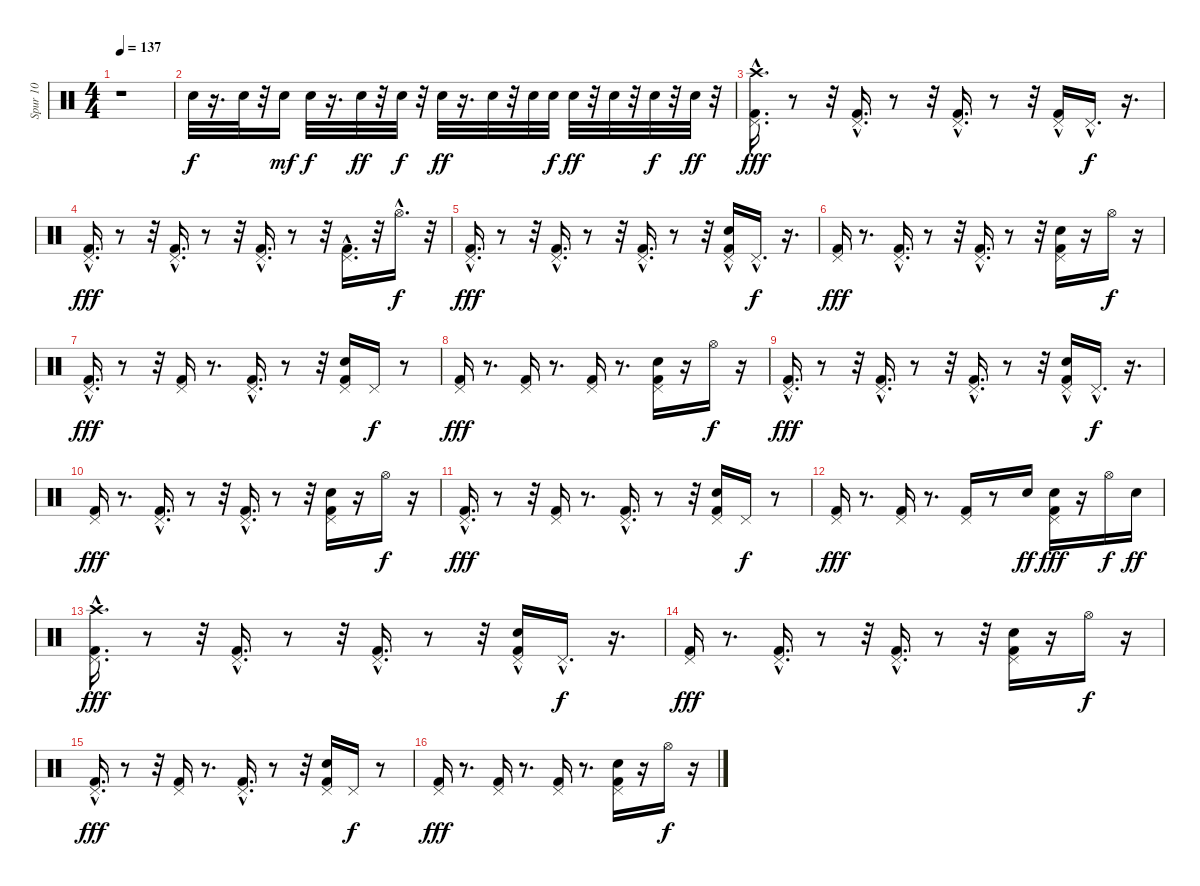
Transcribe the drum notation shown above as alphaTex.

\track ("Spur 10" "Spur 10") {instrument percussion}
\staff {score}
\articulation defaults
\ts (4 4)
\tempo 137
\clef neutral
\ks c
r.1{dy f} |
"Snare (hit) 2".32 r.16{d} "Snare (hit) 2".32 r.32 "Snare (hit) 2".16{dy mf} "Snare (hit) 2".32{dy f} r.16{d} "Snare (hit) 2".32{dy ff} r.32 "Snare (hit) 2".32{dy f} r.32 "Snare (hit) 2".32{dy ff} r.16{d} "Snare (hit) 2".32 r.32 "Snare (hit) 2".32 "Snare (hit) 2".32{dy f} "Snare (hit) 2".32{dy ff} r.32 "Snare (hit) 2".32 r.32 "Snare (hit) 2".32{dy f} r.32 "Snare (hit) 2".32{dy ff} r.32 |
("Crash high (hit)" "Pedal Hi-Hat (hit)" "Kick (hit) 2"{hac}).16{d dy fff} r.8 r.32 ("Pedal Hi-Hat (hit)" "Kick (hit) 2"{hac}).16{d} r.8 r.32 ("Pedal Hi-Hat (hit)"{hac} "Kick (hit) 2"{hac}).16{d} r.8 r.32 ("Pedal Hi-Hat (hit)" "Kick (hit) 2"{hac}).16 "Pedal Hi-Hat (hit)"{hac}.16{d dy f} r.16{d} |
("Pedal Hi-Hat (hit)" "Kick (hit) 2"{hac}).16{d dy fff} r.8 r.32 ("Pedal Hi-Hat (hit)" "Kick (hit) 2"{hac}).16{d} r.8 r.32 ("Pedal Hi-Hat (hit)"{hac} "Kick (hit) 2"{hac}).16{d} r.8 r.32 ("Pedal Hi-Hat (hit)"{hac} "Kick (hit) 2"{hac}).16{d} r.32 "Hi-Hat (open)"{hac}.16{d dy f} r.32 |
("Pedal Hi-Hat (hit)" "Kick (hit) 2"{hac}).16{d dy fff} r.8 r.32 ("Pedal Hi-Hat (hit)" "Kick (hit) 2"{hac}).16{d} r.8 r.32 ("Pedal Hi-Hat (hit)"{hac} "Kick (hit) 2"{hac}).16{d} r.8 r.32 ("Snare (hit) 2" "Pedal Hi-Hat (hit)" "Kick (hit) 2"{hac}).16 "Pedal Hi-Hat (hit)"{hac}.16{d dy f} r.16{d} |
("Pedal Hi-Hat (hit)" "Kick (hit) 2").16{dy fff} r.8{d} ("Pedal Hi-Hat (hit)" "Kick (hit) 2"{hac}).16{d} r.8 r.32 ("Pedal Hi-Hat (hit)" "Kick (hit) 2"{hac}).16{d} r.8 r.32 ("Snare (hit) 2" "Pedal Hi-Hat (hit)" "Kick (hit) 2").16 r.16 "Hi-Hat (open)".16{dy f} r.16 |
("Pedal Hi-Hat (hit)" "Kick (hit) 2"{hac}).16{d dy fff} r.8 r.32 ("Pedal Hi-Hat (hit)" "Kick (hit) 2").16 r.8{d} ("Pedal Hi-Hat (hit)" "Kick (hit) 2"{hac}).16{d} r.8 r.32 ("Snare (hit) 2" "Pedal Hi-Hat (hit)" "Kick (hit) 2").16 "Pedal Hi-Hat (hit)".16{dy f} r.8 |
("Pedal Hi-Hat (hit)" "Kick (hit) 2").16{dy fff} r.8{d} ("Pedal Hi-Hat (hit)" "Kick (hit) 2").16 r.8{d} ("Pedal Hi-Hat (hit)" "Kick (hit) 2").16 r.8{d} ("Snare (hit) 2" "Pedal Hi-Hat (hit)" "Kick (hit) 2").16 r.16 "Hi-Hat (open)".16{dy f} r.16 |
("Pedal Hi-Hat (hit)" "Kick (hit) 2"{hac}).16{d dy fff} r.8 r.32 ("Pedal Hi-Hat (hit)" "Kick (hit) 2"{hac}).16{d} r.8 r.32 ("Pedal Hi-Hat (hit)"{hac} "Kick (hit) 2"{hac}).16{d} r.8 r.32 ("Snare (hit) 2" "Pedal Hi-Hat (hit)" "Kick (hit) 2"{hac}).16 "Pedal Hi-Hat (hit)"{hac}.16{d dy f} r.16{d} |
("Pedal Hi-Hat (hit)" "Kick (hit) 2").16{dy fff} r.8{d} ("Pedal Hi-Hat (hit)" "Kick (hit) 2"{hac}).16{d} r.8 r.32 ("Pedal Hi-Hat (hit)" "Kick (hit) 2"{hac}).16{d} r.8 r.32 ("Snare (hit) 2" "Pedal Hi-Hat (hit)" "Kick (hit) 2").16 r.16 "Hi-Hat (open)".16{dy f} r.16 |
("Pedal Hi-Hat (hit)" "Kick (hit) 2"{hac}).16{d dy fff} r.8 r.32 ("Pedal Hi-Hat (hit)" "Kick (hit) 2").16 r.8{d} ("Pedal Hi-Hat (hit)" "Kick (hit) 2"{hac}).16{d} r.8 r.32 ("Snare (hit) 2" "Pedal Hi-Hat (hit)" "Kick (hit) 2").16 "Pedal Hi-Hat (hit)".16{dy f} r.8 |
("Pedal Hi-Hat (hit)" "Kick (hit) 2").16{dy fff} r.8{d} ("Pedal Hi-Hat (hit)" "Kick (hit) 2").16 r.8{d} ("Pedal Hi-Hat (hit)" "Kick (hit) 2").16 r.8 "Electric Snare (hit)".16{dy ff} ("Snare (hit) 2" "Pedal Hi-Hat (hit)" "Kick (hit) 2").16{dy fff} r.16 "Hi-Hat (open)".16{dy f} "Electric Snare (hit)".16{dy ff} |
("Pedal Hi-Hat (hit)" "Kick (hit) 2"{hac} "Crash high (hit)").16{d dy fff} r.8 r.32 ("Pedal Hi-Hat (hit)" "Kick (hit) 2"{hac}).16{d} r.8 r.32 ("Pedal Hi-Hat (hit)"{hac} "Kick (hit) 2"{hac}).16{d} r.8 r.32 ("Snare (hit) 2" "Pedal Hi-Hat (hit)" "Kick (hit) 2"{hac}).16 "Pedal Hi-Hat (hit)"{hac}.16{d dy f} r.16{d} |
("Pedal Hi-Hat (hit)" "Kick (hit) 2").16{dy fff} r.8{d} ("Pedal Hi-Hat (hit)" "Kick (hit) 2"{hac}).16{d} r.8 r.32 ("Pedal Hi-Hat (hit)" "Kick (hit) 2"{hac}).16{d} r.8 r.32 ("Snare (hit) 2" "Pedal Hi-Hat (hit)" "Kick (hit) 2").16 r.16 "Hi-Hat (open)".16{dy f} r.16 |
("Pedal Hi-Hat (hit)" "Kick (hit) 2"{hac}).16{d dy fff} r.8 r.32 ("Pedal Hi-Hat (hit)" "Kick (hit) 2").16 r.8{d} ("Pedal Hi-Hat (hit)" "Kick (hit) 2"{hac}).16{d} r.8 r.32 ("Snare (hit) 2" "Pedal Hi-Hat (hit)" "Kick (hit) 2").16 "Pedal Hi-Hat (hit)".16{dy f} r.8 |
("Pedal Hi-Hat (hit)" "Kick (hit) 2").16{dy fff} r.8{d} ("Pedal Hi-Hat (hit)" "Kick (hit) 2").16 r.8{d} ("Pedal Hi-Hat (hit)" "Kick (hit) 2").16 r.8{d} ("Snare (hit) 2" "Pedal Hi-Hat (hit)" "Kick (hit) 2").16 r.16 "Hi-Hat (open)".16{dy f} r.16
